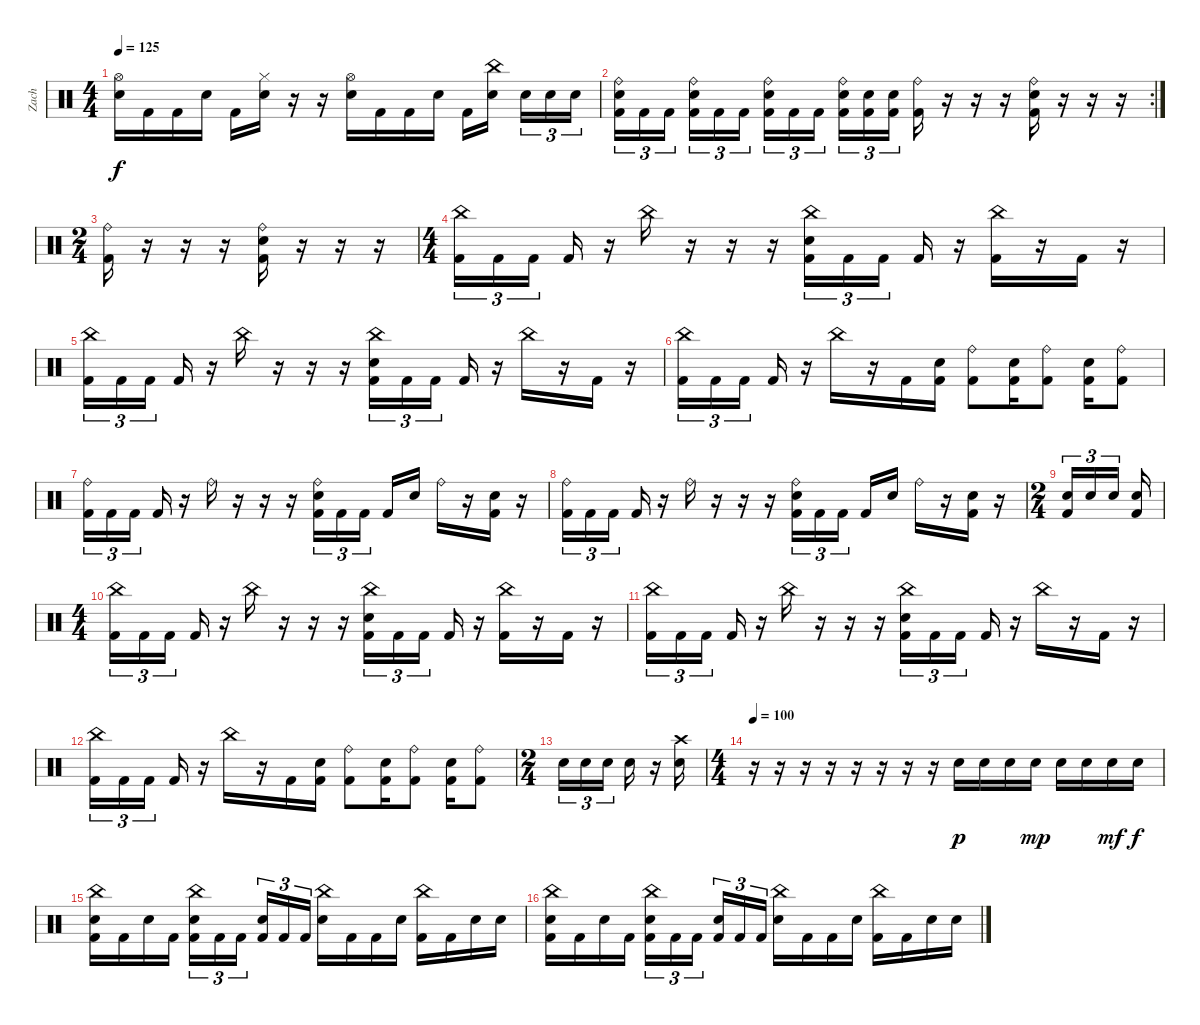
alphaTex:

\track ("Zach" "Zach") {instrument percussion}
\staff {score}
\articulation defaults
\ts (4 4)
\tempo 125
\clef neutral
\ks c
("Hi-Hat (open)" "Electric Snare (hit)").16{dy f} "Kick (hit) 2".16 "Kick (hit) 2".16 "Electric Snare (hit)".16 "Kick (hit) 2".16 ("Hi-Hat (closed)" "Electric Snare (hit)").16 r.16 r.16 ("Hi-Hat (open)" "Electric Snare (hit)").16 "Kick (hit) 2".16 "Kick (hit) 2".16 "Electric Snare (hit)".16 "Kick (hit) 2".16 ("China (hit)" "Electric Snare (hit)").16{beam splitsecondary} "Electric Snare (hit)".16{tu (3 2)} "Electric Snare (hit)".16{tu (3 2)} "Electric Snare (hit)".16{tu (3 2)} |
\rc 2
("Ride (bell)" "Electric Snare (hit)" "Kick (hit) 2").16{tu (3 2)} "Kick (hit) 2".16{tu (3 2)} "Kick (hit) 2".16{tu (3 2) beam splitsecondary} ("Ride (bell)" "Electric Snare (hit)" "Kick (hit) 2").16{tu (3 2)} "Kick (hit) 2".16{tu (3 2)} "Kick (hit) 2".16{tu (3 2)} ("Ride (bell)" "Electric Snare (hit)" "Kick (hit) 2").16{tu (3 2)} "Kick (hit) 2".16{tu (3 2)} "Kick (hit) 2".16{tu (3 2) beam splitsecondary} ("Ride (bell)" "Electric Snare (hit)" "Kick (hit) 2").16{tu (3 2)} ("Electric Snare (hit)" "Kick (hit) 2").16{tu (3 2)} ("Electric Snare (hit)" "Kick (hit) 2").16{tu (3 2)} ("Ride (bell)" "Kick (hit) 2").16 r.16 r.16 r.16 ("Ride (bell)" "Electric Snare (hit)" "Kick (hit) 2").16 r.16 r.16 r.16 |
\ts (2 4)
("Ride (bell)" "Kick (hit) 2").16 r.16 r.16 r.16 ("Ride (bell)" "Electric Snare (hit)" "Kick (hit) 2").16 r.16 r.16 r.16 |
\ts (4 4)
("China (hit)" "Kick (hit) 2").16{tu (3 2)} "Kick (hit) 2".16{tu (3 2)} "Kick (hit) 2".16{tu (3 2) beam splitsecondary} "Kick (hit) 2".16 r.16 "China (hit)".16 r.16 r.16 r.16 ("China (hit)" "Electric Snare (hit)" "Kick (hit) 2").16{tu (3 2)} "Kick (hit) 2".16{tu (3 2)} "Kick (hit) 2".16{tu (3 2) beam splitsecondary} "Kick (hit) 2".16 r.16 ("China (hit)" "Kick (hit) 2").16 r.16 "Kick (hit) 2".16 r.16 |
("China (hit)" "Kick (hit) 2").16{tu (3 2)} "Kick (hit) 2".16{tu (3 2)} "Kick (hit) 2".16{tu (3 2) beam splitsecondary} "Kick (hit) 2".16 r.16 "China (hit)".16 r.16 r.16 r.16 ("China (hit)" "Electric Snare (hit)" "Kick (hit) 2").16{tu (3 2)} "Kick (hit) 2".16{tu (3 2)} "Kick (hit) 2".16{tu (3 2) beam splitsecondary} "Kick (hit) 2".16 r.16 "China (hit)".16 r.16 "Kick (hit) 2".16 r.16 |
("China (hit)" "Kick (hit) 2").16{tu (3 2)} "Kick (hit) 2".16{tu (3 2)} "Kick (hit) 2".16{tu (3 2) beam splitsecondary} "Kick (hit) 2".16 r.16 "China (hit)".16 r.16 "Kick (hit) 2".16 ("Electric Snare (hit)" "Kick (hit) 2").16 ("Ride (bell)" "Kick (hit) 2").8 ("Electric Snare (hit)" "Kick (hit) 2").16 ("Ride (bell)" "Kick (hit) 2").8 ("Electric Snare (hit)" "Kick (hit) 2").16 ("Ride (bell)" "Kick (hit) 2").8 |
("Ride (bell)" "Kick (hit) 2").16{tu (3 2)} "Kick (hit) 2".16{tu (3 2)} "Kick (hit) 2".16{tu (3 2) beam splitsecondary} "Kick (hit) 2".16 r.16 "Ride (bell)".16 r.16 r.16 r.16 ("Ride (bell)" "Electric Snare (hit)" "Kick (hit) 2").16{tu (3 2)} "Kick (hit) 2".16{tu (3 2)} "Kick (hit) 2".16{tu (3 2) beam splitsecondary} "Kick (hit) 2".16 "Electric Snare (hit)".16 "Ride (bell)".16 r.16 ("Electric Snare (hit)" "Kick (hit) 2").16 r.16 |
("Ride (bell)" "Kick (hit) 2").16{tu (3 2)} "Kick (hit) 2".16{tu (3 2)} "Kick (hit) 2".16{tu (3 2) beam splitsecondary} "Kick (hit) 2".16 r.16 "Ride (bell)".16 r.16 r.16 r.16 ("Ride (bell)" "Electric Snare (hit)" "Kick (hit) 2").16{tu (3 2)} "Kick (hit) 2".16{tu (3 2)} "Kick (hit) 2".16{tu (3 2) beam splitsecondary} "Kick (hit) 2".16 "Electric Snare (hit)".16 "Ride (bell)".16 r.16 ("Electric Snare (hit)" "Kick (hit) 2").16 r.16 |
\ts (2 4)
("Electric Snare (hit)" "Kick (hit) 2").16{tu (3 2)} "Electric Snare (hit)".16{tu (3 2)} "Electric Snare (hit)".16{tu (3 2) beam splitsecondary} ("Electric Snare (hit)" "Kick (hit) 2").16 |
\ts (4 4)
("China (hit)" "Kick (hit) 2").16{tu (3 2)} "Kick (hit) 2".16{tu (3 2)} "Kick (hit) 2".16{tu (3 2) beam splitsecondary} "Kick (hit) 2".16 r.16 "China (hit)".16 r.16 r.16 r.16 ("China (hit)" "Electric Snare (hit)" "Kick (hit) 2").16{tu (3 2)} "Kick (hit) 2".16{tu (3 2)} "Kick (hit) 2".16{tu (3 2) beam splitsecondary} "Kick (hit) 2".16 r.16 ("China (hit)" "Kick (hit) 2").16 r.16 "Kick (hit) 2".16 r.16 |
("China (hit)" "Kick (hit) 2").16{tu (3 2)} "Kick (hit) 2".16{tu (3 2)} "Kick (hit) 2".16{tu (3 2) beam splitsecondary} "Kick (hit) 2".16 r.16 "China (hit)".16 r.16 r.16 r.16 ("China (hit)" "Electric Snare (hit)" "Kick (hit) 2").16{tu (3 2)} "Kick (hit) 2".16{tu (3 2)} "Kick (hit) 2".16{tu (3 2) beam splitsecondary} "Kick (hit) 2".16 r.16 "China (hit)".16 r.16 "Kick (hit) 2".16 r.16 |
("China (hit)" "Kick (hit) 2").16{tu (3 2)} "Kick (hit) 2".16{tu (3 2)} "Kick (hit) 2".16{tu (3 2) beam splitsecondary} "Kick (hit) 2".16 r.16 "China (hit)".16 r.16 "Kick (hit) 2".16 ("Electric Snare (hit)" "Kick (hit) 2").16 ("Ride (bell)" "Kick (hit) 2").8 ("Electric Snare (hit)" "Kick (hit) 2").16 ("Ride (bell)" "Kick (hit) 2").8 ("Electric Snare (hit)" "Kick (hit) 2").16 ("Ride (bell)" "Kick (hit) 2").8 |
\ts (2 4)
"Electric Snare (hit)".16{tu (3 2)} "Electric Snare (hit)".16{tu (3 2)} "Electric Snare (hit)".16{tu (3 2) beam splitsecondary} "Electric Snare (hit)".16 r.16 ("Crash high (hit)" "Electric Snare (hit)").16 |
\ts (4 4)
\tempo 100
r.16 r.16 r.16 r.16 r.16 r.16 r.16 r.16 "Electric Snare (hit)".16{dy p} "Electric Snare (hit)".16 "Electric Snare (hit)".16 "Electric Snare (hit)".16{dy mp} "Electric Snare (hit)".16 "Electric Snare (hit)".16 "Electric Snare (hit)".16{dy mf} "Electric Snare (hit)".16{dy f} |
("China (hit)" "Electric Snare (hit)" "Kick (hit) 2").16 "Kick (hit) 2".16 "Electric Snare (hit)".16 "Kick (hit) 2".16 ("China (hit)" "Electric Snare (hit)" "Kick (hit) 2").16{tu (3 2)} "Kick (hit) 2".16{tu (3 2)} "Kick (hit) 2".16{tu (3 2) beam splitsecondary} ("Electric Snare (hit)" "Kick (hit) 2").16{tu (3 2)} "Kick (hit) 2".16{tu (3 2)} "Kick (hit) 2".16{tu (3 2)} ("China (hit)" "Electric Snare (hit)").16 "Kick (hit) 2".16 "Kick (hit) 2".16 "Electric Snare (hit)".16 ("China (hit)" "Kick (hit) 2").16 "Kick (hit) 2".16 "Electric Snare (hit)".16 "Electric Snare (hit)".16 |
("China (hit)" "Electric Snare (hit)" "Kick (hit) 2").16 "Kick (hit) 2".16 "Electric Snare (hit)".16 "Kick (hit) 2".16 ("China (hit)" "Electric Snare (hit)" "Kick (hit) 2").16{tu (3 2)} "Kick (hit) 2".16{tu (3 2)} "Kick (hit) 2".16{tu (3 2) beam splitsecondary} ("Electric Snare (hit)" "Kick (hit) 2").16{tu (3 2)} "Kick (hit) 2".16{tu (3 2)} "Kick (hit) 2".16{tu (3 2)} ("China (hit)" "Electric Snare (hit)").16 "Kick (hit) 2".16 "Kick (hit) 2".16 "Electric Snare (hit)".16 ("China (hit)" "Kick (hit) 2").16 "Kick (hit) 2".16 "Electric Snare (hit)".16 "Electric Snare (hit)".16
